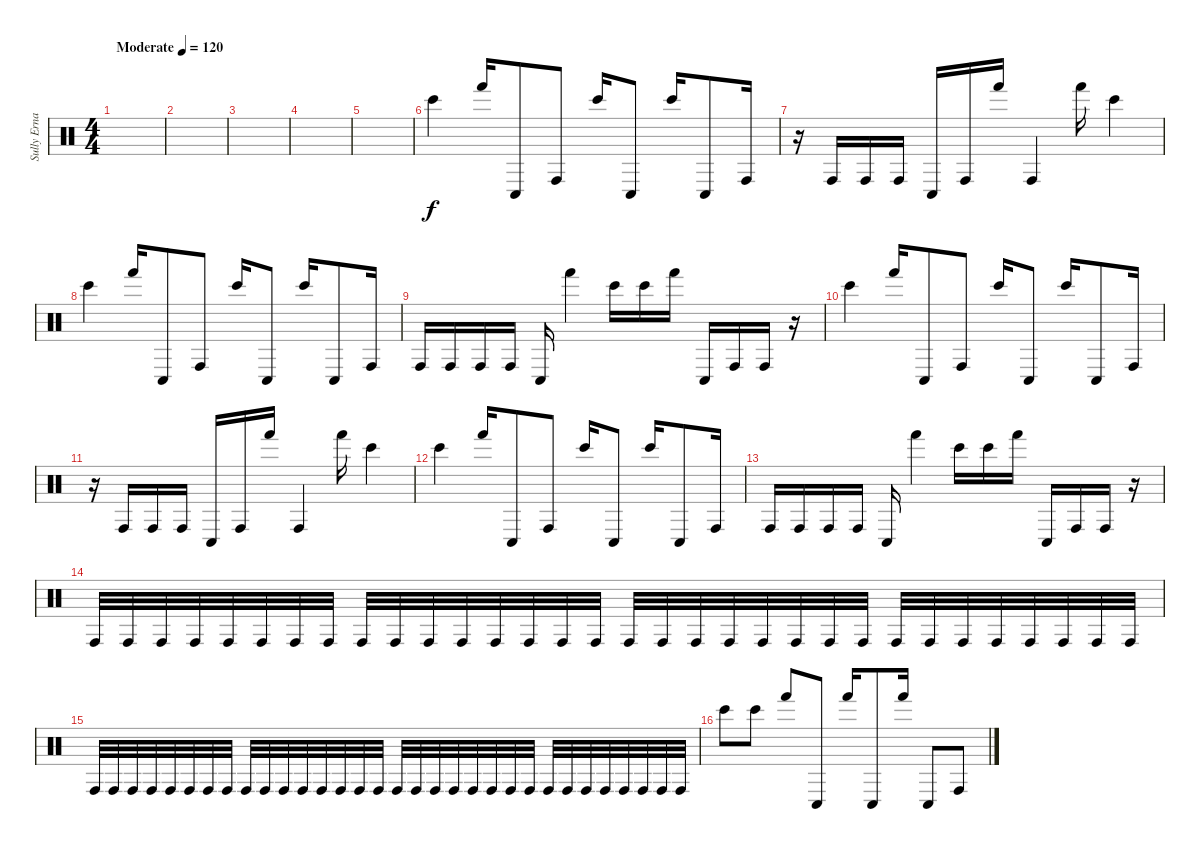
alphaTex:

\track ("Sully Erna" "Sully Erna") {instrument percussion}
\staff {score}
\articulation defaults
\ts (4 4)
\tempo (120 "Moderate")
\clef neutral
\ks c
|
|
|
|
|
"Bongo High (hit)".4 "Hand (hit)".16 "Conga low (hit)".8 "Conga high (hit)".8 "Bongo High (hit)".16 "Conga low (hit)".8 "Bongo High (hit)".16 "Conga low (hit)".8 "Conga high (hit)".16 |
r.16 "Conga high (hit)".16 "Conga high (hit)".16 "Conga high (hit)".16 "Conga low (hit)".16 "Conga high (hit)".16 "Hand (hit)".16 "Conga high (hit)".4 "Hand (hit)".16 "Bongo High (hit)".4 |
"Bongo High (hit)".4 "Hand (hit)".16 "Conga low (hit)".8 "Conga high (hit)".8 "Bongo High (hit)".16 "Conga low (hit)".8 "Bongo High (hit)".16 "Conga low (hit)".8 "Conga high (hit)".16 |
"Conga high (hit)".16 "Conga high (hit)".16 "Conga high (hit)".16 "Conga high (hit)".16 "Conga low (hit)".16 "Hand (hit)".4 "Bongo High (hit)".16 "Bongo High (hit)".16 "Hand (hit)".16 "Conga low (hit)".16 "Conga high (hit)".16 "Conga high (hit)".16 r.16 |
"Bongo High (hit)".4 "Hand (hit)".16 "Conga low (hit)".8 "Conga high (hit)".8 "Bongo High (hit)".16 "Conga low (hit)".8 "Bongo High (hit)".16 "Conga low (hit)".8 "Conga high (hit)".16 |
r.16 "Conga high (hit)".16 "Conga high (hit)".16 "Conga high (hit)".16 "Conga low (hit)".16 "Conga high (hit)".16 "Hand (hit)".16 "Conga high (hit)".4 "Hand (hit)".16 "Bongo High (hit)".4 |
"Bongo High (hit)".4 "Hand (hit)".16 "Conga low (hit)".8 "Conga high (hit)".8 "Bongo High (hit)".16 "Conga low (hit)".8 "Bongo High (hit)".16 "Conga low (hit)".8 "Conga high (hit)".16 |
"Conga high (hit)".16 "Conga high (hit)".16 "Conga high (hit)".16 "Conga high (hit)".16 "Conga low (hit)".16 "Hand (hit)".4 "Bongo High (hit)".16 "Bongo High (hit)".16 "Hand (hit)".16 "Conga low (hit)".16 "Conga high (hit)".16 "Conga high (hit)".16 r.16 |
"Conga high (hit)".32 "Conga high (hit)".32 "Conga high (hit)".32 "Conga high (hit)".32 "Conga high (hit)".32 "Conga high (hit)".32 "Conga high (hit)".32 "Conga high (hit)".32 "Conga high (hit)".32 "Conga high (hit)".32 "Conga high (hit)".32 "Conga high (hit)".32 "Conga high (hit)".32 "Conga high (hit)".32 "Conga high (hit)".32 "Conga high (hit)".32 "Conga high (hit)".32 "Conga high (hit)".32 "Conga high (hit)".32 "Conga high (hit)".32 "Conga high (hit)".32 "Conga high (hit)".32 "Conga high (hit)".32 "Conga high (hit)".32 "Conga high (hit)".32 "Conga high (hit)".32 "Conga high (hit)".32 "Conga high (hit)".32 "Conga high (hit)".32 "Conga high (hit)".32 "Conga high (hit)".32 "Conga high (hit)".32 |
"Conga high (hit)".32 "Conga high (hit)".32 "Conga high (hit)".32 "Conga high (hit)".32 "Conga high (hit)".32 "Conga high (hit)".32 "Conga high (hit)".32 "Conga high (hit)".32 "Conga high (hit)".32 "Conga high (hit)".32 "Conga high (hit)".32 "Conga high (hit)".32 "Conga high (hit)".32 "Conga high (hit)".32 "Conga high (hit)".32 "Conga high (hit)".32 "Conga high (hit)".32 "Conga high (hit)".32 "Conga high (hit)".32 "Conga high (hit)".32 "Conga high (hit)".32 "Conga high (hit)".32 "Conga high (hit)".32 "Conga high (hit)".32 "Conga high (hit)".32 "Conga high (hit)".32 "Conga high (hit)".32 "Conga high (hit)".32 "Conga high (hit)".32 "Conga high (hit)".32 "Conga high (hit)".32 "Conga high (hit)".32 |
"Bongo High (hit)".8 "Bongo High (hit)".8 "Hand (hit)".8 "Conga low (hit)".8 "Hand (hit)".16 "Conga low (hit)".8 "Hand (hit)".16 "Conga low (hit)".8 "Conga high (hit)".8
